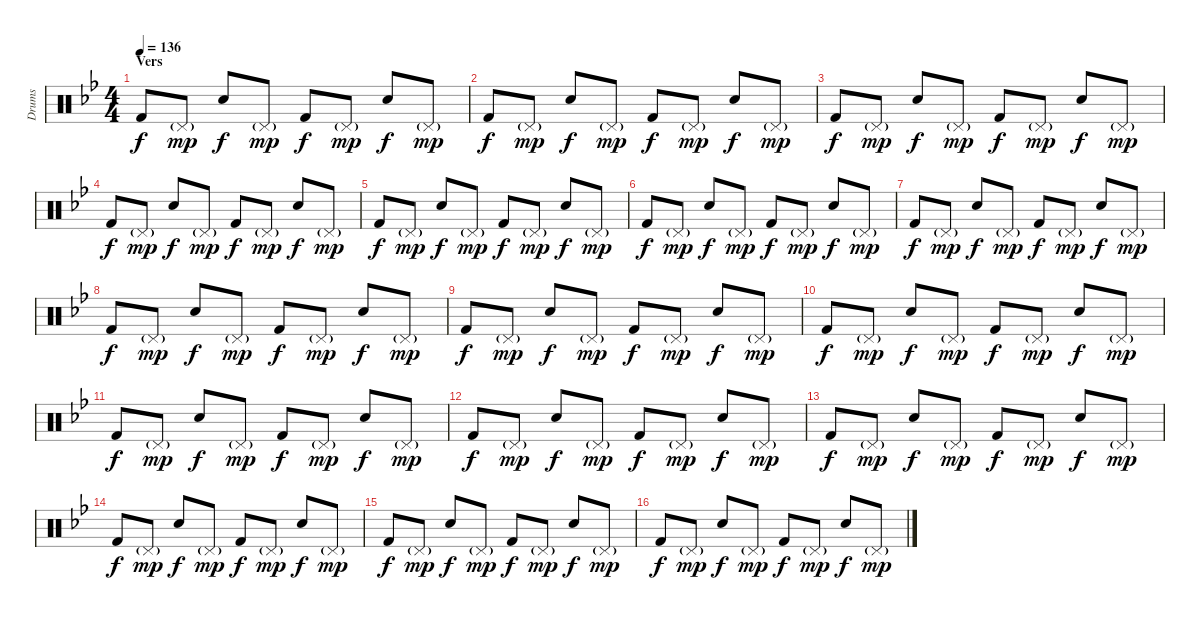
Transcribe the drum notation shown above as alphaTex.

\track ("Drums" "Drums") {instrument percussion}
\staff {score}
\articulation defaults
\ts (4 4)
\section ("" "Vers")
\tempo 136
\clef neutral
\ks gminor "Kick (hit) 2".8{dy f} "Pedal Hi-Hat (hit)"{g}.8{dy mp} "Hand Clap (hit)".8{dy f} "Pedal Hi-Hat (hit)"{g}.8{dy mp} "Kick (hit) 2".8{dy f} "Pedal Hi-Hat (hit)"{g}.8{dy mp} "Hand Clap (hit)".8{dy f} "Pedal Hi-Hat (hit)"{g}.8{dy mp}
|
"Kick (hit) 2".8{dy f} "Pedal Hi-Hat (hit)"{g}.8{dy mp} "Hand Clap (hit)".8{dy f} "Pedal Hi-Hat (hit)"{g}.8{dy mp} "Kick (hit) 2".8{dy f} "Pedal Hi-Hat (hit)"{g}.8{dy mp} "Hand Clap (hit)".8{dy f} "Pedal Hi-Hat (hit)"{g}.8{dy mp} |
"Kick (hit) 2".8{dy f} "Pedal Hi-Hat (hit)"{g}.8{dy mp} "Hand Clap (hit)".8{dy f} "Pedal Hi-Hat (hit)"{g}.8{dy mp} "Kick (hit) 2".8{dy f} "Pedal Hi-Hat (hit)"{g}.8{dy mp} "Hand Clap (hit)".8{dy f} "Pedal Hi-Hat (hit)"{g}.8{dy mp} |
"Kick (hit) 2".8{dy f} "Pedal Hi-Hat (hit)"{g}.8{dy mp} "Hand Clap (hit)".8{dy f} "Pedal Hi-Hat (hit)"{g}.8{dy mp} "Kick (hit) 2".8{dy f} "Pedal Hi-Hat (hit)"{g}.8{dy mp} "Hand Clap (hit)".8{dy f} "Pedal Hi-Hat (hit)"{g}.8{dy mp} |
"Kick (hit) 2".8{dy f} "Pedal Hi-Hat (hit)"{g}.8{dy mp} "Hand Clap (hit)".8{dy f} "Pedal Hi-Hat (hit)"{g}.8{dy mp} "Kick (hit) 2".8{dy f} "Pedal Hi-Hat (hit)"{g}.8{dy mp} "Hand Clap (hit)".8{dy f} "Pedal Hi-Hat (hit)"{g}.8{dy mp} |
"Kick (hit) 2".8{dy f} "Pedal Hi-Hat (hit)"{g}.8{dy mp} "Hand Clap (hit)".8{dy f} "Pedal Hi-Hat (hit)"{g}.8{dy mp} "Kick (hit) 2".8{dy f} "Pedal Hi-Hat (hit)"{g}.8{dy mp} "Hand Clap (hit)".8{dy f} "Pedal Hi-Hat (hit)"{g}.8{dy mp} |
"Kick (hit) 2".8{dy f} "Pedal Hi-Hat (hit)"{g}.8{dy mp} "Hand Clap (hit)".8{dy f} "Pedal Hi-Hat (hit)"{g}.8{dy mp} "Kick (hit) 2".8{dy f} "Pedal Hi-Hat (hit)"{g}.8{dy mp} "Hand Clap (hit)".8{dy f} "Pedal Hi-Hat (hit)"{g}.8{dy mp} |
"Kick (hit) 2".8{dy f} "Pedal Hi-Hat (hit)"{g}.8{dy mp} "Hand Clap (hit)".8{dy f} "Pedal Hi-Hat (hit)"{g}.8{dy mp} "Kick (hit) 2".8{dy f} "Pedal Hi-Hat (hit)"{g}.8{dy mp} "Hand Clap (hit)".8{dy f} "Pedal Hi-Hat (hit)"{g}.8{dy mp} |
"Kick (hit) 2".8{dy f} "Pedal Hi-Hat (hit)"{g}.8{dy mp} "Hand Clap (hit)".8{dy f} "Pedal Hi-Hat (hit)"{g}.8{dy mp} "Kick (hit) 2".8{dy f} "Pedal Hi-Hat (hit)"{g}.8{dy mp} "Hand Clap (hit)".8{dy f} "Pedal Hi-Hat (hit)"{g}.8{dy mp} |
"Kick (hit) 2".8{dy f} "Pedal Hi-Hat (hit)"{g}.8{dy mp} "Hand Clap (hit)".8{dy f} "Pedal Hi-Hat (hit)"{g}.8{dy mp} "Kick (hit) 2".8{dy f} "Pedal Hi-Hat (hit)"{g}.8{dy mp} "Hand Clap (hit)".8{dy f} "Pedal Hi-Hat (hit)"{g}.8{dy mp} |
"Kick (hit) 2".8{dy f} "Pedal Hi-Hat (hit)"{g}.8{dy mp} "Hand Clap (hit)".8{dy f} "Pedal Hi-Hat (hit)"{g}.8{dy mp} "Kick (hit) 2".8{dy f} "Pedal Hi-Hat (hit)"{g}.8{dy mp} "Hand Clap (hit)".8{dy f} "Pedal Hi-Hat (hit)"{g}.8{dy mp} |
"Kick (hit) 2".8{dy f} "Pedal Hi-Hat (hit)"{g}.8{dy mp} "Hand Clap (hit)".8{dy f} "Pedal Hi-Hat (hit)"{g}.8{dy mp} "Kick (hit) 2".8{dy f} "Pedal Hi-Hat (hit)"{g}.8{dy mp} "Hand Clap (hit)".8{dy f} "Pedal Hi-Hat (hit)"{g}.8{dy mp} |
"Kick (hit) 2".8{dy f} "Pedal Hi-Hat (hit)"{g}.8{dy mp} "Hand Clap (hit)".8{dy f} "Pedal Hi-Hat (hit)"{g}.8{dy mp} "Kick (hit) 2".8{dy f} "Pedal Hi-Hat (hit)"{g}.8{dy mp} "Hand Clap (hit)".8{dy f} "Pedal Hi-Hat (hit)"{g}.8{dy mp} |
"Kick (hit) 2".8{dy f} "Pedal Hi-Hat (hit)"{g}.8{dy mp} "Hand Clap (hit)".8{dy f} "Pedal Hi-Hat (hit)"{g}.8{dy mp} "Kick (hit) 2".8{dy f} "Pedal Hi-Hat (hit)"{g}.8{dy mp} "Hand Clap (hit)".8{dy f} "Pedal Hi-Hat (hit)"{g}.8{dy mp} |
"Kick (hit) 2".8{dy f} "Pedal Hi-Hat (hit)"{g}.8{dy mp} "Hand Clap (hit)".8{dy f} "Pedal Hi-Hat (hit)"{g}.8{dy mp} "Kick (hit) 2".8{dy f} "Pedal Hi-Hat (hit)"{g}.8{dy mp} "Hand Clap (hit)".8{dy f} "Pedal Hi-Hat (hit)"{g}.8{dy mp} |
"Kick (hit) 2".8{dy f} "Pedal Hi-Hat (hit)"{g}.8{dy mp} "Hand Clap (hit)".8{dy f} "Pedal Hi-Hat (hit)"{g}.8{dy mp} "Kick (hit) 2".8{dy f} "Pedal Hi-Hat (hit)"{g}.8{dy mp} "Hand Clap (hit)".8{dy f} "Pedal Hi-Hat (hit)"{g}.8{dy mp}
